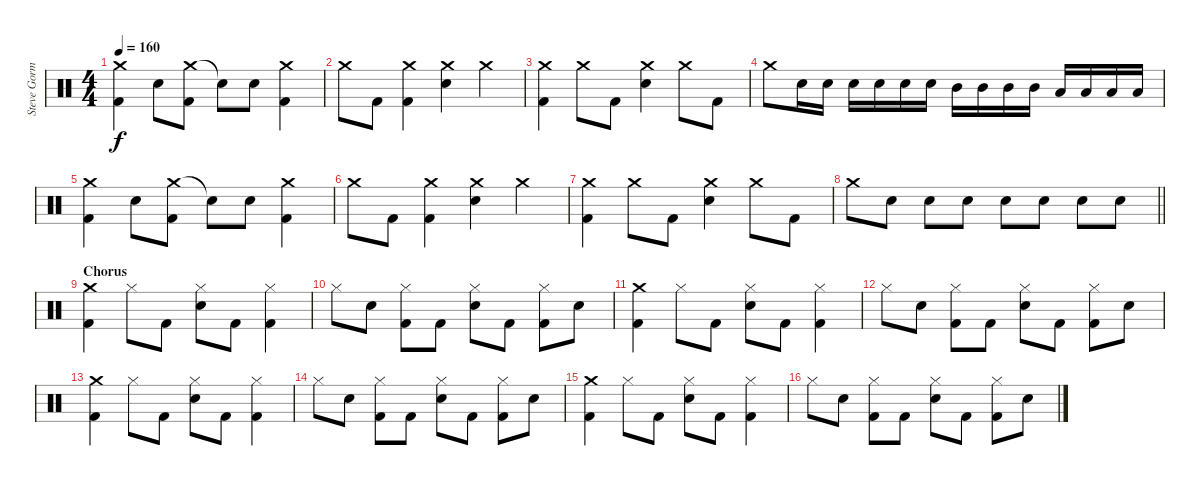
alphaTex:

\track ("Steve Gorman " "Steve Gorm") {instrument percussion}
\staff {score}
\articulation defaults
\ts (4 4)
\tempo 160
\clef neutral
\ks c
("Crash medium (hit)" "Kick (hit) 2").4{dy f} "Snare (hit) 2".8 ("Crash medium (hit)" "Kick (hit) 2").8 "Snare (hit)"{t}.8 "Snare (hit) 2".8 ("Crash medium (hit)" "Kick (hit) 2").4 |
"Crash medium (hit)".8 "Kick (hit) 2".8 ("Crash medium (hit)" "Kick (hit) 2").4 ("Crash medium (hit)" "Snare (hit) 2").4 "Crash medium (hit)".4 |
("Crash medium (hit)" "Kick (hit) 2").4 "Crash medium (hit)".8 "Kick (hit) 2".8 ("Crash medium (hit)" "Snare (hit) 2").4 "Crash medium (hit)".8 "Kick (hit) 2".8 |
"Crash medium (hit)".8 "Snare (hit) 2".16 "Snare (hit) 2".16 "Snare (hit) 2".16 "Snare (hit) 2".16 "Snare (hit) 2".16 "Snare (hit) 2".16 "Mid Tom (hit)".16 "Mid Tom (hit)".16 "Mid Tom (hit)".16 "Mid Tom (hit)".16 "Low Tom (hit)".16 "Low Tom (hit)".16 "Low Tom (hit)".16 "Low Tom (hit)".16 |
("Crash medium (hit)" "Kick (hit) 2").4 "Snare (hit) 2".8 ("Crash medium (hit)" "Kick (hit) 2").8 "Snare (hit)"{t}.8 "Snare (hit) 2".8 ("Crash medium (hit)" "Kick (hit) 2").4 |
"Crash medium (hit)".8 "Kick (hit) 2".8 ("Crash medium (hit)" "Kick (hit) 2").4 ("Crash medium (hit)" "Snare (hit) 2").4 "Crash medium (hit)".4 |
("Crash medium (hit)" "Kick (hit) 2").4 "Crash medium (hit)".8 "Kick (hit) 2".8 ("Crash medium (hit)" "Snare (hit) 2").4 "Crash medium (hit)".8 "Kick (hit) 2".8 |
\barLineRight lightlight "Crash medium (hit)".8 "Snare (hit) 2".8 "Snare (hit) 2".8 "Snare (hit) 2".8 "Snare (hit) 2".8 "Snare (hit) 2".8 "Snare (hit) 2".8 "Snare (hit) 2".8
|
\section ("" "Chorus")
("Crash medium (hit)" "Kick (hit) 2").4 "Hi-Hat (closed)".8 "Kick (hit) 2".8 ("Hi-Hat (closed)" "Snare (hit) 2").8 "Kick (hit) 2".8 ("Hi-Hat (closed)" "Kick (hit) 2").4 |
"Hi-Hat (closed)".8 "Snare (hit) 2".8 ("Hi-Hat (closed)" "Kick (hit) 2").8 "Kick (hit) 2".8 ("Hi-Hat (closed)" "Snare (hit) 2").8 "Kick (hit) 2".8 ("Hi-Hat (closed)" "Kick (hit) 2").8 "Snare (hit) 2".8 |
("Crash medium (hit)" "Kick (hit) 2").4 "Hi-Hat (closed)".8 "Kick (hit) 2".8 ("Hi-Hat (closed)" "Snare (hit) 2").8 "Kick (hit) 2".8 ("Hi-Hat (closed)" "Kick (hit) 2").4 |
"Hi-Hat (closed)".8 "Snare (hit) 2".8 ("Hi-Hat (closed)" "Kick (hit) 2").8 "Kick (hit) 2".8 ("Hi-Hat (closed)" "Snare (hit) 2").8 "Kick (hit) 2".8 ("Hi-Hat (closed)" "Kick (hit) 2").8 "Snare (hit) 2".8 |
("Crash medium (hit)" "Kick (hit) 2").4 "Hi-Hat (closed)".8 "Kick (hit) 2".8 ("Hi-Hat (closed)" "Snare (hit) 2").8 "Kick (hit) 2".8 ("Hi-Hat (closed)" "Kick (hit) 2").4 |
"Hi-Hat (closed)".8 "Snare (hit) 2".8 ("Hi-Hat (closed)" "Kick (hit) 2").8 "Kick (hit) 2".8 ("Hi-Hat (closed)" "Snare (hit) 2").8 "Kick (hit) 2".8 ("Hi-Hat (closed)" "Kick (hit) 2").8 "Snare (hit) 2".8 |
("Crash medium (hit)" "Kick (hit) 2").4 "Hi-Hat (closed)".8 "Kick (hit) 2".8 ("Hi-Hat (closed)" "Snare (hit) 2").8 "Kick (hit) 2".8 ("Hi-Hat (closed)" "Kick (hit) 2").4 |
"Hi-Hat (closed)".8 "Snare (hit) 2".8 ("Hi-Hat (closed)" "Kick (hit) 2").8 "Kick (hit) 2".8 ("Hi-Hat (closed)" "Snare (hit) 2").8 "Kick (hit) 2".8 ("Hi-Hat (closed)" "Kick (hit) 2").8 "Snare (hit) 2".8
